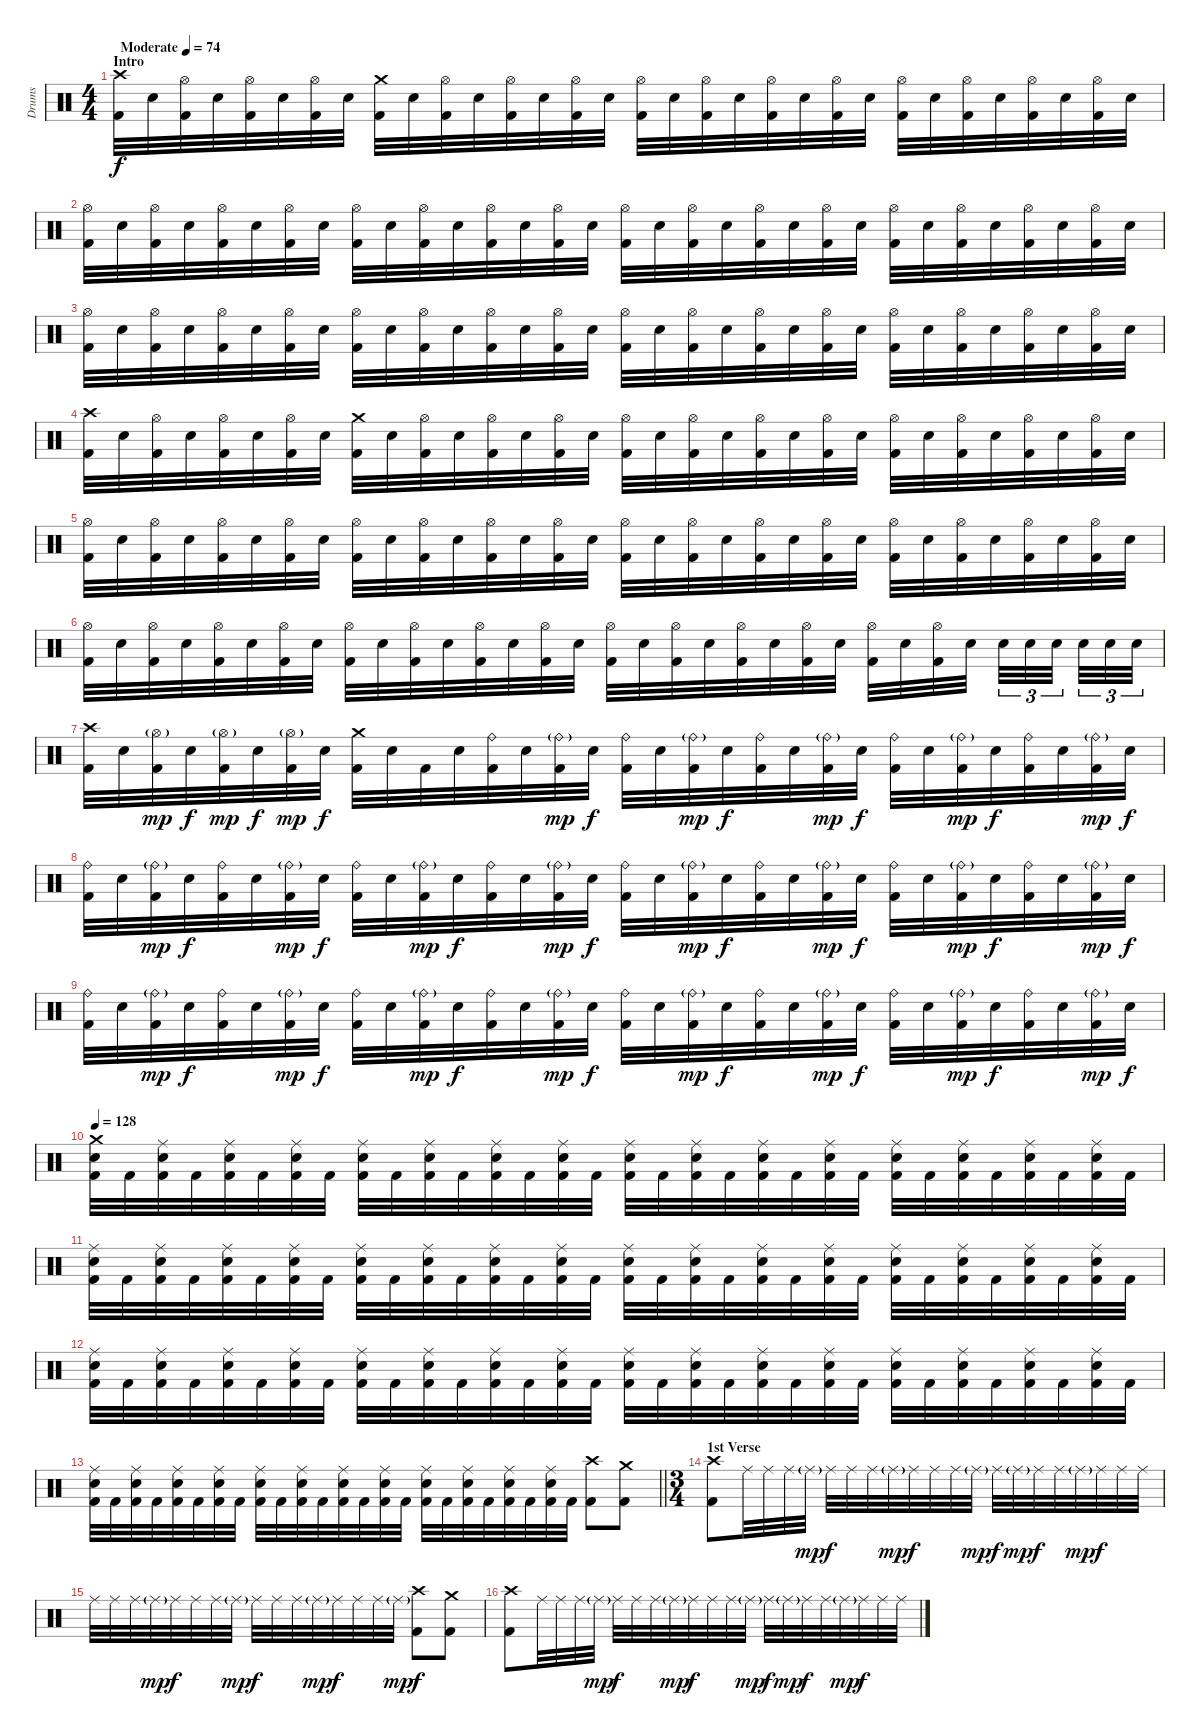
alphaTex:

\track ("Drums" "Drums") {instrument percussion}
\staff {score}
\articulation defaults
\ts (4 4)
\section ("" "Intro")
\tempo (74 "Moderate")
\clef neutral
\ks c
("Crash high (hit)" "Kick (hit) 2").32{dy f} "Snare (hit) 2".32 ("Hi-Hat (open)" "Kick (hit) 2").32 "Snare (hit) 2".32 ("Hi-Hat (open)" "Kick (hit) 2").32 "Snare (hit) 2".32 ("Hi-Hat (open)" "Kick (hit) 2").32 "Snare (hit) 2".32 ("Crash medium (hit)" "Kick (hit) 2").32 "Snare (hit) 2".32 ("Hi-Hat (open)" "Kick (hit) 2").32 "Snare (hit) 2".32 ("Hi-Hat (open)" "Kick (hit) 2").32 "Snare (hit) 2".32 ("Hi-Hat (open)" "Kick (hit) 2").32 "Snare (hit) 2".32 ("Hi-Hat (open)" "Kick (hit) 2").32 "Snare (hit) 2".32 ("Hi-Hat (open)" "Kick (hit) 2").32 "Snare (hit) 2".32 ("Hi-Hat (open)" "Kick (hit) 2").32 "Snare (hit) 2".32 ("Hi-Hat (open)" "Kick (hit) 2").32 "Snare (hit) 2".32 ("Hi-Hat (open)" "Kick (hit) 2").32 "Snare (hit) 2".32 ("Hi-Hat (open)" "Kick (hit) 2").32 "Snare (hit) 2".32 ("Hi-Hat (open)" "Kick (hit) 2").32 "Snare (hit) 2".32 ("Hi-Hat (open)" "Kick (hit) 2").32 "Snare (hit) 2".32 |
("Hi-Hat (open)" "Kick (hit) 2").32 "Snare (hit) 2".32 ("Hi-Hat (open)" "Kick (hit) 2").32 "Snare (hit) 2".32 ("Hi-Hat (open)" "Kick (hit) 2").32 "Snare (hit) 2".32 ("Hi-Hat (open)" "Kick (hit) 2").32 "Snare (hit) 2".32 ("Hi-Hat (open)" "Kick (hit) 2").32 "Snare (hit) 2".32 ("Hi-Hat (open)" "Kick (hit) 2").32 "Snare (hit) 2".32 ("Hi-Hat (open)" "Kick (hit) 2").32 "Snare (hit) 2".32 ("Hi-Hat (open)" "Kick (hit) 2").32 "Snare (hit) 2".32 ("Hi-Hat (open)" "Kick (hit) 2").32 "Snare (hit) 2".32 ("Hi-Hat (open)" "Kick (hit) 2").32 "Snare (hit) 2".32 ("Hi-Hat (open)" "Kick (hit) 2").32 "Snare (hit) 2".32 ("Hi-Hat (open)" "Kick (hit) 2").32 "Snare (hit) 2".32 ("Hi-Hat (open)" "Kick (hit) 2").32 "Snare (hit) 2".32 ("Hi-Hat (open)" "Kick (hit) 2").32 "Snare (hit) 2".32 ("Hi-Hat (open)" "Kick (hit) 2").32 "Snare (hit) 2".32 ("Hi-Hat (open)" "Kick (hit) 2").32 "Snare (hit) 2".32 |
("Hi-Hat (open)" "Kick (hit) 2").32 "Snare (hit) 2".32 ("Hi-Hat (open)" "Kick (hit) 2").32 "Snare (hit) 2".32 ("Hi-Hat (open)" "Kick (hit) 2").32 "Snare (hit) 2".32 ("Hi-Hat (open)" "Kick (hit) 2").32 "Snare (hit) 2".32 ("Hi-Hat (open)" "Kick (hit) 2").32 "Snare (hit) 2".32 ("Hi-Hat (open)" "Kick (hit) 2").32 "Snare (hit) 2".32 ("Hi-Hat (open)" "Kick (hit) 2").32 "Snare (hit) 2".32 ("Hi-Hat (open)" "Kick (hit) 2").32 "Snare (hit) 2".32 ("Hi-Hat (open)" "Kick (hit) 2").32 "Snare (hit) 2".32 ("Hi-Hat (open)" "Kick (hit) 2").32 "Snare (hit) 2".32 ("Hi-Hat (open)" "Kick (hit) 2").32 "Snare (hit) 2".32 ("Hi-Hat (open)" "Kick (hit) 2").32 "Snare (hit) 2".32 ("Hi-Hat (open)" "Kick (hit) 2").32 "Snare (hit) 2".32 ("Hi-Hat (open)" "Kick (hit) 2").32 "Snare (hit) 2".32 ("Hi-Hat (open)" "Kick (hit) 2").32 "Snare (hit) 2".32 ("Hi-Hat (open)" "Kick (hit) 2").32 "Snare (hit) 2".32 |
("Crash high (hit)" "Kick (hit) 2").32 "Snare (hit) 2".32 ("Hi-Hat (open)" "Kick (hit) 2").32 "Snare (hit) 2".32 ("Hi-Hat (open)" "Kick (hit) 2").32 "Snare (hit) 2".32 ("Hi-Hat (open)" "Kick (hit) 2").32 "Snare (hit) 2".32 ("Crash medium (hit)" "Kick (hit) 2").32 "Snare (hit) 2".32 ("Hi-Hat (open)" "Kick (hit) 2").32 "Snare (hit) 2".32 ("Hi-Hat (open)" "Kick (hit) 2").32 "Snare (hit) 2".32 ("Hi-Hat (open)" "Kick (hit) 2").32 "Snare (hit) 2".32 ("Hi-Hat (open)" "Kick (hit) 2").32 "Snare (hit) 2".32 ("Hi-Hat (open)" "Kick (hit) 2").32 "Snare (hit) 2".32 ("Hi-Hat (open)" "Kick (hit) 2").32 "Snare (hit) 2".32 ("Hi-Hat (open)" "Kick (hit) 2").32 "Snare (hit) 2".32 ("Hi-Hat (open)" "Kick (hit) 2").32 "Snare (hit) 2".32 ("Hi-Hat (open)" "Kick (hit) 2").32 "Snare (hit) 2".32 ("Hi-Hat (open)" "Kick (hit) 2").32 "Snare (hit) 2".32 ("Hi-Hat (open)" "Kick (hit) 2").32 "Snare (hit) 2".32 |
("Hi-Hat (open)" "Kick (hit) 2").32 "Snare (hit) 2".32 ("Hi-Hat (open)" "Kick (hit) 2").32 "Snare (hit) 2".32 ("Hi-Hat (open)" "Kick (hit) 2").32 "Snare (hit) 2".32 ("Hi-Hat (open)" "Kick (hit) 2").32 "Snare (hit) 2".32 ("Hi-Hat (open)" "Kick (hit) 2").32 "Snare (hit) 2".32 ("Hi-Hat (open)" "Kick (hit) 2").32 "Snare (hit) 2".32 ("Hi-Hat (open)" "Kick (hit) 2").32 "Snare (hit) 2".32 ("Hi-Hat (open)" "Kick (hit) 2").32 "Snare (hit) 2".32 ("Hi-Hat (open)" "Kick (hit) 2").32 "Snare (hit) 2".32 ("Hi-Hat (open)" "Kick (hit) 2").32 "Snare (hit) 2".32 ("Hi-Hat (open)" "Kick (hit) 2").32 "Snare (hit) 2".32 ("Hi-Hat (open)" "Kick (hit) 2").32 "Snare (hit) 2".32 ("Hi-Hat (open)" "Kick (hit) 2").32 "Snare (hit) 2".32 ("Hi-Hat (open)" "Kick (hit) 2").32 "Snare (hit) 2".32 ("Hi-Hat (open)" "Kick (hit) 2").32 "Snare (hit) 2".32 ("Hi-Hat (open)" "Kick (hit) 2").32 "Snare (hit) 2".32 |
("Hi-Hat (open)" "Kick (hit) 2").32 "Snare (hit) 2".32 ("Hi-Hat (open)" "Kick (hit) 2").32 "Snare (hit) 2".32 ("Hi-Hat (open)" "Kick (hit) 2").32 "Snare (hit) 2".32 ("Hi-Hat (open)" "Kick (hit) 2").32 "Snare (hit) 2".32 ("Hi-Hat (open)" "Kick (hit) 2").32 "Snare (hit) 2".32 ("Hi-Hat (open)" "Kick (hit) 2").32 "Snare (hit) 2".32 ("Hi-Hat (open)" "Kick (hit) 2").32 "Snare (hit) 2".32 ("Hi-Hat (open)" "Kick (hit) 2").32 "Snare (hit) 2".32 ("Hi-Hat (open)" "Kick (hit) 2").32 "Snare (hit) 2".32 ("Hi-Hat (open)" "Kick (hit) 2").32 "Snare (hit) 2".32 ("Hi-Hat (open)" "Kick (hit) 2").32 "Snare (hit) 2".32 ("Hi-Hat (open)" "Kick (hit) 2").32 "Snare (hit) 2".32 ("Hi-Hat (open)" "Kick (hit) 2").32 "Snare (hit) 2".32 ("Hi-Hat (open)" "Kick (hit) 2").32 "Snare (hit) 2".32{beam splitsecondary} "Snare (hit) 2".32{tu (3 2)} "Snare (hit) 2".32{tu (3 2)} "Snare (hit) 2".32{tu (3 2) beam splitsecondary} "Snare (hit) 2".32{tu (3 2)} "Snare (hit) 2".32{tu (3 2)} "Snare (hit) 2".32{tu (3 2)} |
("Crash high (hit)" "Kick (hit) 2").32 "Snare (hit) 2".32 ("Hi-Hat (open)"{g} "Kick (hit) 2").32{dy mp} "Snare (hit) 2".32{dy f} ("Hi-Hat (open)"{g} "Kick (hit) 2").32{dy mp} "Snare (hit) 2".32{dy f} ("Hi-Hat (open)"{g} "Kick (hit) 2").32{dy mp} "Snare (hit) 2".32{dy f} ("Crash medium (hit)" "Kick (hit) 2").32 "Snare (hit) 2".32 "Kick (hit) 2".32 "Snare (hit) 2".32 ("Ride (bell)" "Kick (hit) 2").32 "Snare (hit) 2".32 ("Ride (bell)"{g} "Kick (hit) 2").32{dy mp} "Snare (hit) 2".32{dy f} ("Ride (bell)" "Kick (hit) 2").32 "Snare (hit) 2".32 ("Ride (bell)"{g} "Kick (hit) 2").32{dy mp} "Snare (hit) 2".32{dy f} ("Ride (bell)" "Kick (hit) 2").32 "Snare (hit) 2".32 ("Ride (bell)"{g} "Kick (hit) 2").32{dy mp} "Snare (hit) 2".32{dy f} ("Ride (bell)" "Kick (hit) 2").32 "Snare (hit) 2".32 ("Ride (bell)"{g} "Kick (hit) 2").32{dy mp} "Snare (hit) 2".32{dy f} ("Ride (bell)" "Kick (hit) 2").32 "Snare (hit) 2".32 ("Ride (bell)"{g} "Kick (hit) 2").32{dy mp} "Snare (hit) 2".32{dy f} |
("Ride (bell)" "Kick (hit) 2").32 "Snare (hit) 2".32 ("Ride (bell)"{g} "Kick (hit) 2").32{dy mp} "Snare (hit) 2".32{dy f} ("Ride (bell)" "Kick (hit) 2").32 "Snare (hit) 2".32 ("Ride (bell)"{g} "Kick (hit) 2").32{dy mp} "Snare (hit) 2".32{dy f} ("Ride (bell)" "Kick (hit) 2").32 "Snare (hit) 2".32 ("Ride (bell)"{g} "Kick (hit) 2").32{dy mp} "Snare (hit) 2".32{dy f} ("Ride (bell)" "Kick (hit) 2").32 "Snare (hit) 2".32 ("Ride (bell)"{g} "Kick (hit) 2").32{dy mp} "Snare (hit) 2".32{dy f} ("Ride (bell)" "Kick (hit) 2").32 "Snare (hit) 2".32 ("Ride (bell)"{g} "Kick (hit) 2").32{dy mp} "Snare (hit) 2".32{dy f} ("Ride (bell)" "Kick (hit) 2").32 "Snare (hit) 2".32 ("Ride (bell)"{g} "Kick (hit) 2").32{dy mp} "Snare (hit) 2".32{dy f} ("Ride (bell)" "Kick (hit) 2").32 "Snare (hit) 2".32 ("Ride (bell)"{g} "Kick (hit) 2").32{dy mp} "Snare (hit) 2".32{dy f} ("Ride (bell)" "Kick (hit) 2").32 "Snare (hit) 2".32 ("Ride (bell)"{g} "Kick (hit) 2").32{dy mp} "Snare (hit) 2".32{dy f} |
("Ride (bell)" "Kick (hit) 2").32 "Snare (hit) 2".32 ("Ride (bell)"{g} "Kick (hit) 2").32{dy mp} "Snare (hit) 2".32{dy f} ("Ride (bell)" "Kick (hit) 2").32 "Snare (hit) 2".32 ("Ride (bell)"{g} "Kick (hit) 2").32{dy mp} "Snare (hit) 2".32{dy f} ("Ride (bell)" "Kick (hit) 2").32 "Snare (hit) 2".32 ("Ride (bell)"{g} "Kick (hit) 2").32{dy mp} "Snare (hit) 2".32{dy f} ("Ride (bell)" "Kick (hit) 2").32 "Snare (hit) 2".32 ("Ride (bell)"{g} "Kick (hit) 2").32{dy mp} "Snare (hit) 2".32{dy f} ("Ride (bell)" "Kick (hit) 2").32 "Snare (hit) 2".32 ("Ride (bell)"{g} "Kick (hit) 2").32{dy mp} "Snare (hit) 2".32{dy f} ("Ride (bell)" "Kick (hit) 2").32 "Snare (hit) 2".32 ("Ride (bell)"{g} "Kick (hit) 2").32{dy mp} "Snare (hit) 2".32{dy f} ("Ride (bell)" "Kick (hit) 2").32 "Snare (hit) 2".32 ("Ride (bell)"{g} "Kick (hit) 2").32{dy mp} "Snare (hit) 2".32{dy f} ("Ride (bell)" "Kick (hit) 2").32 "Snare (hit) 2".32 ("Ride (bell)"{g} "Kick (hit) 2").32{dy mp} "Snare (hit) 2".32{dy f} |
\tempo 128
("Crash medium (hit)" "Snare (hit) 2" "Kick (hit) 2").32 "Kick (hit) 2".32 ("Ride (middle)" "Snare (hit) 2" "Kick (hit) 2").32 "Kick (hit) 2".32 ("Ride (middle)" "Snare (hit) 2" "Kick (hit) 2").32 "Kick (hit) 2".32 ("Ride (middle)" "Snare (hit) 2" "Kick (hit) 2").32 "Kick (hit) 2".32 ("Ride (middle)" "Snare (hit) 2" "Kick (hit) 2").32 "Kick (hit) 2".32 ("Ride (middle)" "Snare (hit) 2" "Kick (hit) 2").32 "Kick (hit) 2".32 ("Ride (middle)" "Snare (hit) 2" "Kick (hit) 2").32 "Kick (hit) 2".32 ("Ride (middle)" "Snare (hit) 2" "Kick (hit) 2").32 "Kick (hit) 2".32 ("Ride (middle)" "Snare (hit) 2" "Kick (hit) 2").32 "Kick (hit) 2".32 ("Ride (middle)" "Snare (hit) 2" "Kick (hit) 2").32 "Kick (hit) 2".32 ("Ride (middle)" "Snare (hit) 2" "Kick (hit) 2").32 "Kick (hit) 2".32 ("Ride (middle)" "Snare (hit) 2" "Kick (hit) 2").32 "Kick (hit) 2".32 ("Ride (middle)" "Snare (hit) 2" "Kick (hit) 2").32 "Kick (hit) 2".32 ("Ride (middle)" "Snare (hit) 2" "Kick (hit) 2").32 "Kick (hit) 2".32 ("Ride (middle)" "Snare (hit) 2" "Kick (hit) 2").32 "Kick (hit) 2".32 ("Ride (middle)" "Snare (hit) 2" "Kick (hit) 2").32 "Kick (hit) 2".32 |
("Ride (middle)" "Snare (hit) 2" "Kick (hit) 2").32 "Kick (hit) 2".32 ("Ride (middle)" "Snare (hit) 2" "Kick (hit) 2").32 "Kick (hit) 2".32 ("Ride (middle)" "Snare (hit) 2" "Kick (hit) 2").32 "Kick (hit) 2".32 ("Ride (middle)" "Snare (hit) 2" "Kick (hit) 2").32 "Kick (hit) 2".32 ("Ride (middle)" "Snare (hit) 2" "Kick (hit) 2").32 "Kick (hit) 2".32 ("Ride (middle)" "Snare (hit) 2" "Kick (hit) 2").32 "Kick (hit) 2".32 ("Ride (middle)" "Snare (hit) 2" "Kick (hit) 2").32 "Kick (hit) 2".32 ("Ride (middle)" "Snare (hit) 2" "Kick (hit) 2").32 "Kick (hit) 2".32 ("Ride (middle)" "Snare (hit) 2" "Kick (hit) 2").32 "Kick (hit) 2".32 ("Ride (middle)" "Snare (hit) 2" "Kick (hit) 2").32 "Kick (hit) 2".32 ("Ride (middle)" "Snare (hit) 2" "Kick (hit) 2").32 "Kick (hit) 2".32 ("Ride (middle)" "Snare (hit) 2" "Kick (hit) 2").32 "Kick (hit) 2".32 ("Ride (middle)" "Snare (hit) 2" "Kick (hit) 2").32 "Kick (hit) 2".32 ("Ride (middle)" "Snare (hit) 2" "Kick (hit) 2").32 "Kick (hit) 2".32 ("Ride (middle)" "Snare (hit) 2" "Kick (hit) 2").32 "Kick (hit) 2".32 ("Ride (middle)" "Snare (hit) 2" "Kick (hit) 2").32 "Kick (hit) 2".32 |
("Ride (middle)" "Snare (hit) 2" "Kick (hit) 2").32 "Kick (hit) 2".32 ("Ride (middle)" "Snare (hit) 2" "Kick (hit) 2").32 "Kick (hit) 2".32 ("Ride (middle)" "Snare (hit) 2" "Kick (hit) 2").32 "Kick (hit) 2".32 ("Ride (middle)" "Snare (hit) 2" "Kick (hit) 2").32 "Kick (hit) 2".32 ("Ride (middle)" "Snare (hit) 2" "Kick (hit) 2").32 "Kick (hit) 2".32 ("Ride (middle)" "Snare (hit) 2" "Kick (hit) 2").32 "Kick (hit) 2".32 ("Ride (middle)" "Snare (hit) 2" "Kick (hit) 2").32 "Kick (hit) 2".32 ("Ride (middle)" "Snare (hit) 2" "Kick (hit) 2").32 "Kick (hit) 2".32 ("Ride (middle)" "Snare (hit) 2" "Kick (hit) 2").32 "Kick (hit) 2".32 ("Ride (middle)" "Snare (hit) 2" "Kick (hit) 2").32 "Kick (hit) 2".32 ("Ride (middle)" "Snare (hit) 2" "Kick (hit) 2").32 "Kick (hit) 2".32 ("Ride (middle)" "Snare (hit) 2" "Kick (hit) 2").32 "Kick (hit) 2".32 ("Ride (middle)" "Snare (hit) 2" "Kick (hit) 2").32 "Kick (hit) 2".32 ("Ride (middle)" "Snare (hit) 2" "Kick (hit) 2").32 "Kick (hit) 2".32 ("Ride (middle)" "Snare (hit) 2" "Kick (hit) 2").32 "Kick (hit) 2".32 ("Ride (middle)" "Snare (hit) 2" "Kick (hit) 2").32 "Kick (hit) 2".32 |
\barLineRight lightlight
("Ride (middle)" "Snare (hit) 2" "Kick (hit) 2").32 "Kick (hit) 2".32 ("Ride (middle)" "Snare (hit) 2" "Kick (hit) 2").32 "Kick (hit) 2".32 ("Ride (middle)" "Snare (hit) 2" "Kick (hit) 2").32 "Kick (hit) 2".32 ("Ride (middle)" "Snare (hit) 2" "Kick (hit) 2").32 "Kick (hit) 2".32 ("Ride (middle)" "Snare (hit) 2" "Kick (hit) 2").32 "Kick (hit) 2".32 ("Ride (middle)" "Snare (hit) 2" "Kick (hit) 2").32 "Kick (hit) 2".32 ("Ride (middle)" "Snare (hit) 2" "Kick (hit) 2").32 "Kick (hit) 2".32 ("Ride (middle)" "Snare (hit) 2" "Kick (hit) 2").32 "Kick (hit) 2".32 ("Ride (middle)" "Snare (hit) 2" "Kick (hit) 2").32 "Kick (hit) 2".32 ("Ride (middle)" "Snare (hit) 2" "Kick (hit) 2").32 "Kick (hit) 2".32 ("Ride (middle)" "Snare (hit) 2" "Kick (hit) 2").32 "Kick (hit) 2".32 ("Ride (middle)" "Snare (hit) 2" "Kick (hit) 2").32 "Kick (hit) 2".32 ("Crash high (hit)" "Kick (hit) 2").8 ("Crash medium (hit)" "Kick (hit) 2").8 |
\ts (3 4)
\section ("" "1st Verse")
("Crash high (hit)" "Kick (hit) 2").8 "Ride (middle)".32 "Ride (middle)".32 "Ride (middle)".32 "Ride (middle)"{g}.32{dy mp} "Ride (middle)".32{dy f} "Ride (middle)".32 "Ride (middle)".32 "Ride (middle)"{g}.32{dy mp} "Ride (middle)".32{dy f} "Ride (middle)".32 "Ride (middle)".32 "Ride (middle)"{g}.32{dy mp} "Ride (middle)".32{dy f} "Ride (middle)"{g}.32{dy mp} "Ride (middle)".32{dy f} "Ride (middle)".32 "Ride (middle)"{g}.32{dy mp} "Ride (middle)".32{dy f} "Ride (middle)".32 "Ride (middle)".32 |
"Ride (middle)".32 "Ride (middle)".32 "Ride (middle)".32 "Ride (middle)"{g}.32{dy mp} "Ride (middle)".32{dy f} "Ride (middle)".32 "Ride (middle)".32 "Ride (middle)"{g}.32{dy mp} "Ride (middle)".32{dy f} "Ride (middle)".32 "Ride (middle)".32 "Ride (middle)"{g}.32{dy mp} "Ride (middle)".32{dy f} "Ride (middle)".32 "Ride (middle)".32 "Ride (middle)"{g}.32{dy mp} ("Crash high (hit)" "Kick (hit) 2").8{dy f} ("Crash medium (hit)" "Kick (hit) 2").8 |
("Crash high (hit)" "Kick (hit) 2").8 "Ride (middle)".32 "Ride (middle)".32 "Ride (middle)".32 "Ride (middle)"{g}.32{dy mp} "Ride (middle)".32{dy f} "Ride (middle)".32 "Ride (middle)".32 "Ride (middle)"{g}.32{dy mp} "Ride (middle)".32{dy f} "Ride (middle)".32 "Ride (middle)".32 "Ride (middle)"{g}.32{dy mp} "Ride (middle)".32{dy f} "Ride (middle)"{g}.32{dy mp} "Ride (middle)".32{dy f} "Ride (middle)".32 "Ride (middle)"{g}.32{dy mp} "Ride (middle)".32{dy f} "Ride (middle)".32 "Ride (middle)".32
